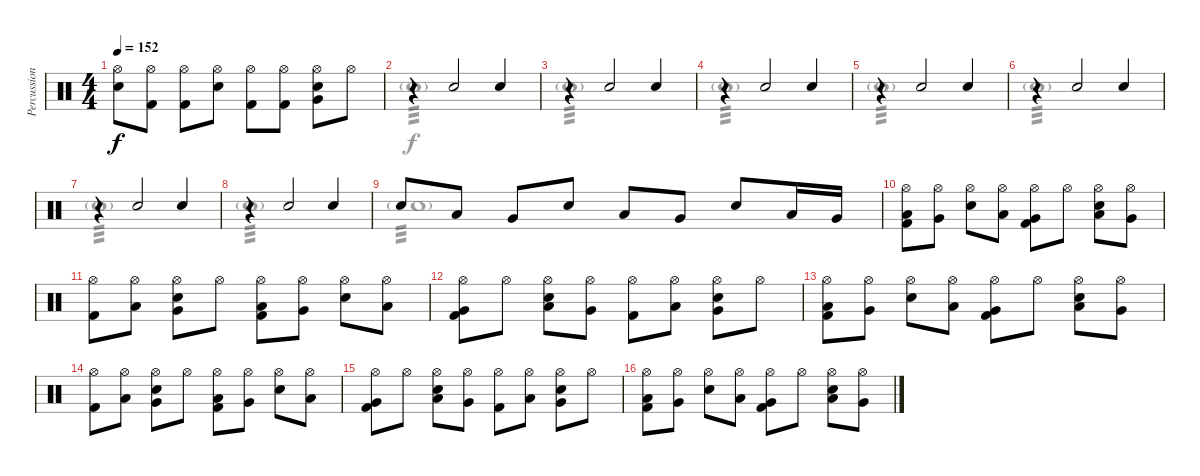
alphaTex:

\track ("Percussion" "Percussion") {instrument percussion}
\staff {score}
\articulation defaults
\voice
\ts (4 4)
\tempo 152
\clef neutral
\ks c
("Hi-Hat (open)" "Snare (hit) 2").8{dy f} ("Hi-Hat (open)" "Kick (hit) 2").8 ("Hi-Hat (open)" "Kick (hit) 2").8 ("Hi-Hat (open)" "Snare (hit) 2").8 ("Hi-Hat (open)" "Kick (hit) 2").8 ("Hi-Hat (open)" "Kick (hit) 2").8 ("Hi-Hat (open)" "Very Low Tom (hit)" "Snare (hit) 2").8 "Hi-Hat (open)".8 |
r.4 "Snare (hit) 2".2 "Snare (hit) 2".4 |
r.4 "Snare (hit) 2".2 "Snare (hit) 2".4 |
r.4 "Snare (hit) 2".2 "Snare (hit) 2".4 |
r.4 "Snare (hit) 2".2 "Snare (hit) 2".4 |
r.4 "Snare (hit) 2".2 "Snare (hit) 2".4 |
r.4 "Snare (hit) 2".2 "Snare (hit) 2".4 |
r.4 "Snare (hit) 2".2 "Snare (hit) 2".4 |
"Snare (hit) 2".8 "Low Tom (hit)".8 "Very Low Tom (hit)".8 "Snare (hit) 2".8 "Low Tom (hit)".8 "Very Low Tom (hit)".8 "Snare (hit) 2".8 "Low Tom (hit)".16 "Very Low Tom (hit)".16 |
("Hi-Hat (open)" "Low Tom (hit)" "Kick (hit) 2").8 ("Hi-Hat (open)" "Very Low Tom (hit)").8 ("Hi-Hat (open)" "Snare (hit) 2").8 ("Hi-Hat (open)" "Low Tom (hit)").8 ("Hi-Hat (open)" "Very Low Tom (hit)" "Kick (hit) 2").8 "Hi-Hat (open)".8 ("Hi-Hat (open)" "Low Tom (hit)" "Snare (hit) 2").8 ("Hi-Hat (open)" "Very Low Tom (hit)").8 |
("Hi-Hat (open)" "Kick (hit) 2").8 ("Hi-Hat (open)" "Low Tom (hit)").8 ("Hi-Hat (open)" "Very Low Tom (hit)" "Snare (hit) 2").8 "Hi-Hat (open)".8 ("Hi-Hat (open)" "Low Tom (hit)" "Kick (hit) 2").8 ("Hi-Hat (open)" "Very Low Tom (hit)").8 ("Hi-Hat (open)" "Snare (hit) 2").8 ("Hi-Hat (open)" "Low Tom (hit)").8 |
("Hi-Hat (open)" "Very Low Tom (hit)" "Kick (hit) 2").8 "Hi-Hat (open)".8 ("Hi-Hat (open)" "Low Tom (hit)" "Snare (hit) 2").8 ("Hi-Hat (open)" "Very Low Tom (hit)").8 ("Hi-Hat (open)" "Kick (hit) 2").8 ("Hi-Hat (open)" "Low Tom (hit)").8 ("Hi-Hat (open)" "Very Low Tom (hit)" "Snare (hit) 2").8 "Hi-Hat (open)".8 |
("Hi-Hat (open)" "Low Tom (hit)" "Kick (hit) 2").8 ("Hi-Hat (open)" "Very Low Tom (hit)").8 ("Hi-Hat (open)" "Snare (hit) 2").8 ("Hi-Hat (open)" "Low Tom (hit)").8 ("Hi-Hat (open)" "Very Low Tom (hit)" "Kick (hit) 2").8 "Hi-Hat (open)".8 ("Hi-Hat (open)" "Low Tom (hit)" "Snare (hit) 2").8 ("Hi-Hat (open)" "Very Low Tom (hit)").8 |
("Hi-Hat (open)" "Kick (hit) 2").8 ("Hi-Hat (open)" "Low Tom (hit)").8 ("Hi-Hat (open)" "Very Low Tom (hit)" "Snare (hit) 2").8 "Hi-Hat (open)".8 ("Hi-Hat (open)" "Low Tom (hit)" "Kick (hit) 2").8 ("Hi-Hat (open)" "Very Low Tom (hit)").8 ("Hi-Hat (open)" "Snare (hit) 2").8 ("Hi-Hat (open)" "Low Tom (hit)").8 |
("Hi-Hat (open)" "Very Low Tom (hit)" "Kick (hit) 2").8 "Hi-Hat (open)".8 ("Hi-Hat (open)" "Low Tom (hit)" "Snare (hit) 2").8 ("Hi-Hat (open)" "Very Low Tom (hit)").8 ("Hi-Hat (open)" "Kick (hit) 2").8 ("Hi-Hat (open)" "Low Tom (hit)").8 ("Hi-Hat (open)" "Very Low Tom (hit)" "Snare (hit) 2").8 "Hi-Hat (open)".8 |
("Hi-Hat (open)" "Low Tom (hit)" "Kick (hit) 2").8 ("Hi-Hat (open)" "Very Low Tom (hit)").8 ("Hi-Hat (open)" "Snare (hit) 2").8 ("Hi-Hat (open)" "Low Tom (hit)").8 ("Hi-Hat (open)" "Very Low Tom (hit)" "Kick (hit) 2").8 "Hi-Hat (open)".8 ("Hi-Hat (open)" "Low Tom (hit)" "Snare (hit) 2").8 ("Hi-Hat (open)" "Very Low Tom (hit)").8
\voice
\clef neutral
\ottava regular
\simile none
\ks c
|
"Electric Snare (hit)"{g}.1{tp 3} |
"Electric Snare (hit)"{g}.1{tp 3} |
"Electric Snare (hit)"{g}.1{tp 3} |
"Electric Snare (hit)"{g}.1{tp 3} |
"Electric Snare (hit)"{g}.1{tp 3} |
"Electric Snare (hit)"{g}.1{tp 3} |
"Electric Snare (hit)"{g}.1{tp 3} |
"Electric Snare (hit)"{g}.1{tp 3} |
|
|
|
|
|
|
